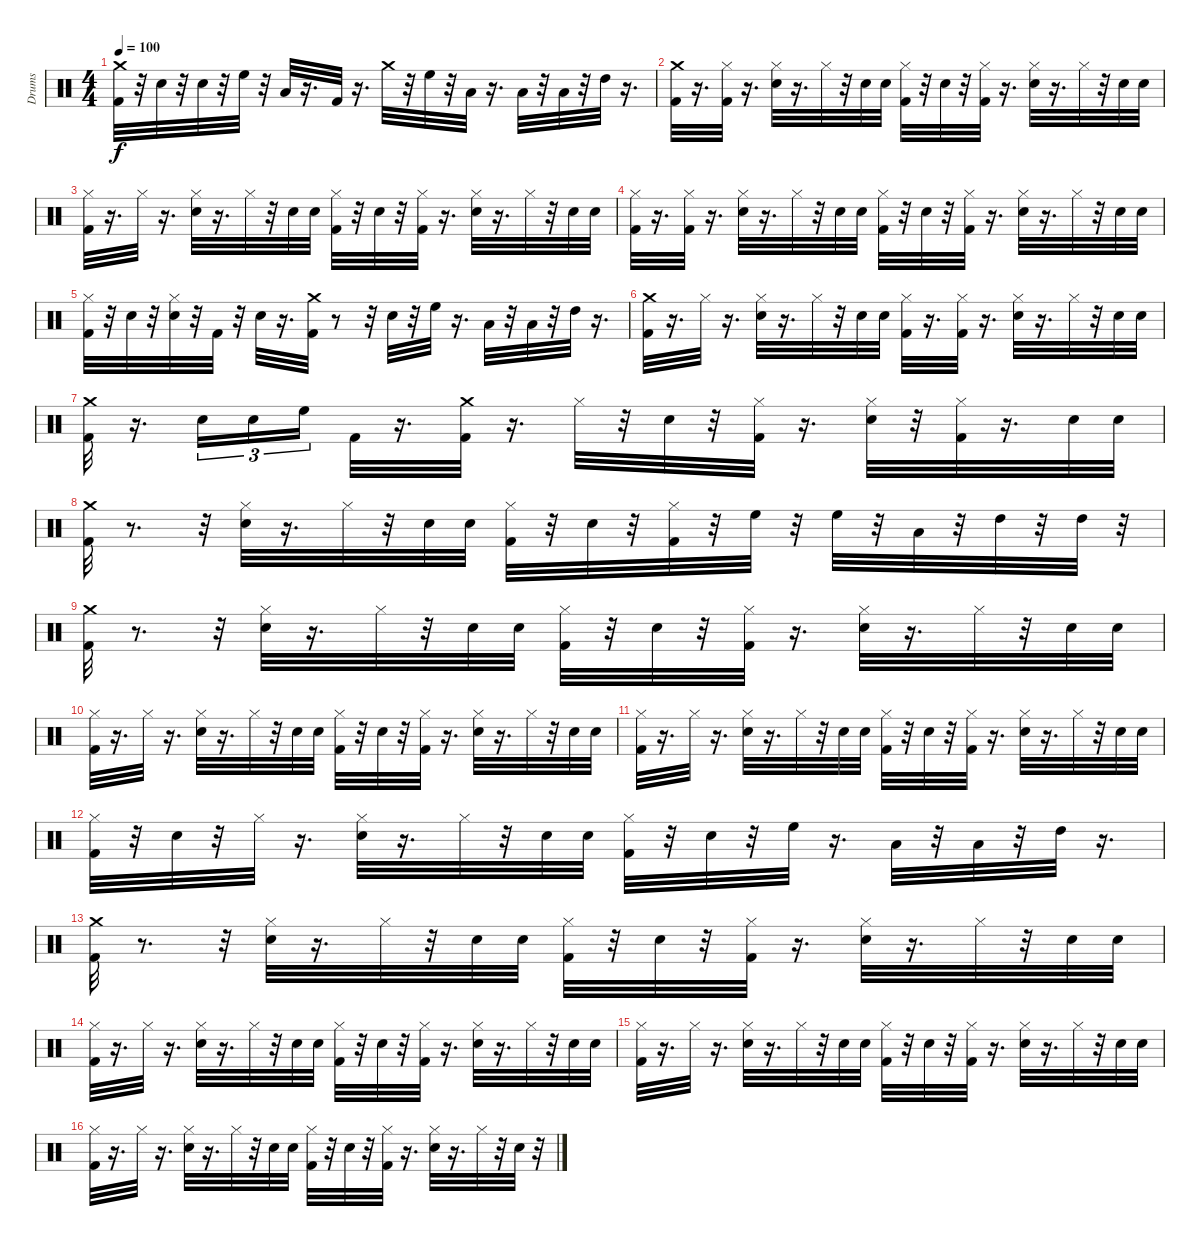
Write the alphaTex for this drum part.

\track ("Drums" "Drums") {instrument percussion}
\staff {score}
\articulation defaults
\ts (4 4)
\tempo 100
\clef neutral
\ks c
("Kick (hit) 2" "Crash medium (hit)").32{dy f} r.32 "Snare (hit) 2".32 r.32 "Snare (hit) 2".32 r.32 "High Floor Tom (hit)".32 r.32 "Low Tom (hit)".32 r.16{d} "Kick (hit) 2".32 r.16{d} "Crash medium (hit)".32 r.32 "High Floor Tom (hit)".32 r.32 "Low Tom (hit)".32 r.16{d} "Low Tom (hit)".32 r.32 "Low Tom (hit)".32 r.32 "High Tom (hit)".32 r.16{d} |
("Kick (hit) 2" "Crash medium (hit)").32 r.16{d} ("Kick (hit) 2" "Hi-Hat (closed)").32 r.16{d} ("Hi-Hat (closed)" "Snare (hit) 2").32 r.16{d} "Hi-Hat (closed)".32 r.32 "Snare (hit) 2".32 "Snare (hit) 2".32 ("Kick (hit) 2" "Hi-Hat (closed)").32 r.32 "Snare (hit) 2".32 r.32 ("Kick (hit) 2" "Hi-Hat (closed)").32 r.16{d} ("Hi-Hat (closed)" "Snare (hit) 2").32 r.16{d} "Hi-Hat (closed)".32 r.32 "Snare (hit) 2".32 "Snare (hit) 2".32 |
("Kick (hit) 2" "Hi-Hat (closed)").32 r.16{d} "Hi-Hat (closed)".32 r.16{d} ("Hi-Hat (closed)" "Snare (hit) 2").32 r.16{d} "Hi-Hat (closed)".32 r.32 "Snare (hit) 2".32 "Snare (hit) 2".32 ("Kick (hit) 2" "Hi-Hat (closed)").32 r.32 "Snare (hit) 2".32 r.32 ("Kick (hit) 2" "Hi-Hat (closed)").32 r.16{d} ("Hi-Hat (closed)" "Snare (hit) 2").32 r.16{d} "Hi-Hat (closed)".32 r.32 "Snare (hit) 2".32 "Snare (hit) 2".32 |
("Kick (hit) 2" "Hi-Hat (closed)").32 r.16{d} ("Kick (hit) 2" "Hi-Hat (closed)").32 r.16{d} ("Hi-Hat (closed)" "Snare (hit) 2").32 r.16{d} "Hi-Hat (closed)".32 r.32 "Snare (hit) 2".32 "Snare (hit) 2".32 ("Kick (hit) 2" "Hi-Hat (closed)").32 r.32 "Snare (hit) 2".32 r.32 ("Kick (hit) 2" "Hi-Hat (closed)").32 r.16{d} ("Hi-Hat (closed)" "Snare (hit) 2").32 r.16{d} "Hi-Hat (closed)".32 r.32 "Snare (hit) 2".32 "Snare (hit) 2".32 |
("Kick (hit) 2" "Hi-Hat (closed)").32 r.32 "Snare (hit) 2".32 r.32 ("Snare (hit) 2" "Hi-Hat (closed)").32 r.32 "Kick (hit) 2".32 r.32 "Snare (hit) 2".32 r.16{d} ("Kick (hit) 2" "Crash medium (hit)").32 r.8 r.32 "Electric Snare (hit)".32 r.32 "High Floor Tom (hit)".32 r.16{d} "Low Tom (hit)".32 r.32 "Low Tom (hit)".32 r.32 "High Tom (hit)".32 r.16{d} |
("Kick (hit) 2" "Crash medium (hit)").32 r.16{d} "Hi-Hat (closed)".32 r.16{d} ("Hi-Hat (closed)" "Snare (hit) 2").32 r.16{d} "Hi-Hat (closed)".32 r.32 "Snare (hit) 2".32 "Snare (hit) 2".32 ("Kick (hit) 2" "Hi-Hat (closed)").32 r.16{d} ("Kick (hit) 2" "Hi-Hat (closed)").32 r.16{d} ("Hi-Hat (closed)" "Snare (hit) 2").32 r.16{d} "Hi-Hat (closed)".32 r.32 "Snare (hit) 2".32 "Snare (hit) 2".32 |
("Kick (hit) 2" "Crash medium (hit)").32 r.16{d} "Snare (hit) 2".16{tu (3 2)} "Electric Snare (hit)".16{tu (3 2)} "High Floor Tom (hit)".16{tu (3 2)} "Kick (hit) 2".32 r.16{d} ("Kick (hit) 2" "Crash medium (hit)").32 r.16{d} "Hi-Hat (closed)".32 r.32 "Snare (hit) 2".32 r.32 ("Kick (hit) 2" "Hi-Hat (closed)").32 r.16{d} ("Hi-Hat (closed)" "Snare (hit) 2").32 r.32 ("Kick (hit) 2" "Hi-Hat (closed)").32 r.16{d} "Snare (hit) 2".32 "Snare (hit) 2".32 |
("Kick (hit) 2" "Crash medium (hit)").32 r.8{d} r.32 ("Hi-Hat (closed)" "Snare (hit) 2").32 r.16{d} "Hi-Hat (closed)".32 r.32 "Snare (hit) 2".32 "Snare (hit) 2".32 ("Kick (hit) 2" "Hi-Hat (closed)").32 r.32 "Snare (hit) 2".32 r.32 ("Kick (hit) 2" "Hi-Hat (closed)").32 r.32 "High Floor Tom (hit)".32 r.32 "High Floor Tom (hit)".32 r.32 "Low Tom (hit)".32 r.32 "High Tom (hit)".32 r.32 "High Tom (hit)".32 r.32 |
("Kick (hit) 2" "Crash medium (hit)").32 r.8{d} r.32 ("Snare (hit) 2" "Hi-Hat (closed)").32 r.16{d} "Hi-Hat (closed)".32 r.32 "Snare (hit) 2".32 "Snare (hit) 2".32 ("Hi-Hat (closed)" "Kick (hit) 2").32 r.32 "Snare (hit) 2".32 r.32 ("Kick (hit) 2" "Hi-Hat (closed)").32 r.16{d} ("Hi-Hat (closed)" "Snare (hit) 2").32 r.16{d} "Hi-Hat (closed)".32 r.32 "Snare (hit) 2".32 "Snare (hit) 2".32 |
("Kick (hit) 2" "Hi-Hat (closed)").32 r.16{d} "Hi-Hat (closed)".32 r.16{d} ("Hi-Hat (closed)" "Snare (hit) 2").32 r.16{d} "Hi-Hat (closed)".32 r.32 "Snare (hit) 2".32 "Snare (hit) 2".32 ("Hi-Hat (closed)" "Kick (hit) 2").32 r.32 "Snare (hit) 2".32 r.32 ("Kick (hit) 2" "Hi-Hat (closed)").32 r.16{d} ("Hi-Hat (closed)" "Snare (hit) 2").32 r.16{d} "Hi-Hat (closed)".32 r.32 "Snare (hit) 2".32 "Snare (hit) 2".32 |
("Kick (hit) 2" "Hi-Hat (closed)").32 r.16{d} "Hi-Hat (closed)".32 r.16{d} ("Hi-Hat (closed)" "Snare (hit) 2").32 r.16{d} "Hi-Hat (closed)".32 r.32 "Snare (hit) 2".32 "Snare (hit) 2".32 ("Kick (hit) 2" "Hi-Hat (closed)").32 r.32 "Snare (hit) 2".32 r.32 ("Kick (hit) 2" "Hi-Hat (closed)").32 r.16{d} ("Hi-Hat (closed)" "Snare (hit) 2").32 r.16{d} "Hi-Hat (closed)".32 r.32 "Snare (hit) 2".32 "Snare (hit) 2".32 |
("Hi-Hat (closed)" "Kick (hit) 2").32 r.32 "Snare (hit) 2".32 r.32 "Hi-Hat (closed)".32 r.16{d} ("Snare (hit) 2" "Hi-Hat (closed)").32 r.16{d} "Hi-Hat (closed)".32 r.32 "Snare (hit) 2".32 "Snare (hit) 2".32 ("Hi-Hat (closed)" "Kick (hit) 2").32 r.32 "Snare (hit) 2".32 r.32 "High Floor Tom (hit)".32 r.16{d} "Low Tom (hit)".32 r.32 "Low Tom (hit)".32 r.32 "High Tom (hit)".32 r.16{d} |
("Kick (hit) 2" "Crash medium (hit)").32 r.8{d} r.32 ("Hi-Hat (closed)" "Snare (hit) 2").32 r.16{d} "Hi-Hat (closed)".32 r.32 "Snare (hit) 2".32 "Snare (hit) 2".32 ("Kick (hit) 2" "Hi-Hat (closed)").32 r.32 "Snare (hit) 2".32 r.32 ("Kick (hit) 2" "Hi-Hat (closed)").32 r.16{d} ("Snare (hit) 2" "Hi-Hat (closed)").32 r.16{d} "Hi-Hat (closed)".32 r.32 "Snare (hit) 2".32 "Snare (hit) 2".32 |
("Kick (hit) 2" "Hi-Hat (closed)").32 r.16{d} "Hi-Hat (closed)".32 r.16{d} ("Hi-Hat (closed)" "Snare (hit) 2").32 r.16{d} "Hi-Hat (closed)".32 r.32 "Snare (hit) 2".32 "Snare (hit) 2".32 ("Kick (hit) 2" "Hi-Hat (closed)").32 r.32 "Snare (hit) 2".32 r.32 ("Kick (hit) 2" "Hi-Hat (closed)").32 r.16{d} ("Hi-Hat (closed)" "Snare (hit) 2").32 r.16{d} "Hi-Hat (closed)".32 r.32 "Snare (hit) 2".32 "Snare (hit) 2".32 |
("Hi-Hat (closed)" "Kick (hit) 2").32 r.16{d} "Hi-Hat (closed)".32 r.16{d} ("Hi-Hat (closed)" "Snare (hit) 2").32 r.16{d} "Hi-Hat (closed)".32 r.32 "Snare (hit) 2".32 "Snare (hit) 2".32 ("Hi-Hat (closed)" "Kick (hit) 2").32 r.32 "Snare (hit) 2".32 r.32 ("Hi-Hat (closed)" "Kick (hit) 2").32 r.16{d} ("Hi-Hat (closed)" "Snare (hit) 2").32 r.16{d} "Hi-Hat (closed)".32 r.32 "Snare (hit) 2".32 "Snare (hit) 2".32 |
("Kick (hit) 2" "Hi-Hat (closed)").32 r.16{d} "Hi-Hat (closed)".32 r.16{d} ("Hi-Hat (closed)" "Snare (hit) 2").32 r.16{d} "Hi-Hat (closed)".32 r.32 "Snare (hit) 2".32 "Snare (hit) 2".32 ("Kick (hit) 2" "Hi-Hat (closed)").32 r.32 "Snare (hit) 2".32 r.32 ("Kick (hit) 2" "Hi-Hat (closed)").32 r.16{d} ("Hi-Hat (closed)" "Snare (hit) 2").32 r.16{d} "Hi-Hat (closed)".32 r.32 "Snare (hit) 2".32 r.32
